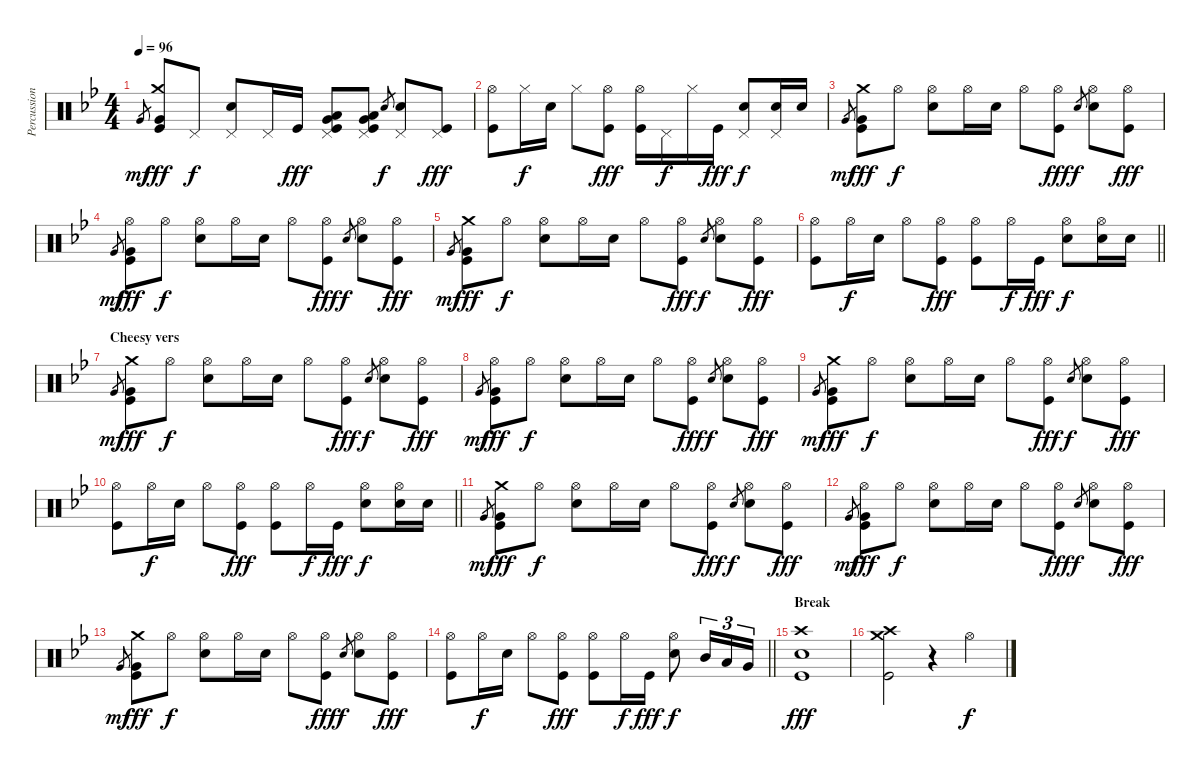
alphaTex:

\track ("Percussion" "Percussion") {instrument percussion}
\staff {score}
\articulation defaults
\ts (4 4)
\tempo 96
\clef neutral
\ks gminor "Very Low Tom (hit)".8{gr dy mf}
("Crash medium (hit)" "Very Low Tom (hit)" "Kick (hit)").8{dy fff} "Pedal Hi-Hat (hit)".8{dy f} ("Pedal Hi-Hat (hit)" "Electric Snare (hit)").8 "Pedal Hi-Hat (hit)".16 "Kick (hit)".16{dy fff} ("Low Floor Tom (hit)" "Pedal Hi-Hat (hit)" "Very Low Tom (hit)" "Kick (hit)").8 ("Low Floor Tom (hit)" "Pedal Hi-Hat (hit)" "Very Low Tom (hit)" "Kick (hit)").8 "Electric Snare (hit)".8{gr dy f} ("Pedal Hi-Hat (hit)" "Electric Snare (hit)").8 ("Pedal Hi-Hat (hit)" "Kick (hit)").8{dy fff} |
("Hi-Hat (open)" "Kick (hit)").8 "Hi-Hat (closed)".16{dy f} "Electric Snare (hit)".16 "Hi-Hat (closed)".8 ("Hi-Hat (open)" "Kick (hit)").8{dy fff} ("Hi-Hat (open)" "Kick (hit)").16 "Pedal Hi-Hat (hit)".16{dy f} "Hi-Hat (closed)".16 "Kick (hit)".16{dy fff} ("Pedal Hi-Hat (hit)" "Electric Snare (hit)").8{dy f} ("Pedal Hi-Hat (hit)" "Electric Snare (hit)").16 "Electric Snare (hit)".16 |
"Very Low Tom (hit)".8{gr dy mf} ("Crash medium (hit)" "Very Low Tom (hit)" "Kick (hit)").8{dy fff} "Hi-Hat (open)".8{dy f} ("Hi-Hat (open)" "Electric Snare (hit)").8 "Hi-Hat (open)".16 "Electric Snare (hit)".16 "Hi-Hat (open)".8 ("Hi-Hat (open)" "Kick (hit)").8{dy fff} "Electric Snare (hit)".8{gr dy f} ("Hi-Hat (open)" "Electric Snare (hit)").8 ("Hi-Hat (open)" "Kick (hit)").8{dy fff} |
"Very Low Tom (hit)".8{gr dy mf} ("Hi-Hat (open)" "Very Low Tom (hit)" "Kick (hit)").8{dy fff} "Hi-Hat (open)".8{dy f} ("Hi-Hat (open)" "Electric Snare (hit)").8 "Hi-Hat (open)".16 "Electric Snare (hit)".16 "Hi-Hat (open)".8 ("Hi-Hat (open)" "Kick (hit)").8{dy fff} "Electric Snare (hit)".8{gr dy f} ("Hi-Hat (open)" "Electric Snare (hit)").8 ("Hi-Hat (open)" "Kick (hit)").8{dy fff} |
"Very Low Tom (hit)".8{gr dy mf} ("Crash medium (hit)" "Very Low Tom (hit)" "Kick (hit)").8{dy fff} "Hi-Hat (open)".8{dy f} ("Hi-Hat (open)" "Electric Snare (hit)").8 "Hi-Hat (open)".16 "Electric Snare (hit)".16 "Hi-Hat (open)".8 ("Hi-Hat (open)" "Kick (hit)").8{dy fff} "Electric Snare (hit)".8{gr dy f} ("Hi-Hat (open)" "Electric Snare (hit)").8 ("Hi-Hat (open)" "Kick (hit)").8{dy fff} |
\barLineRight lightlight
("Hi-Hat (open)" "Kick (hit)").8 "Hi-Hat (open)".16{dy f} "Electric Snare (hit)".16 "Hi-Hat (open)".8 ("Hi-Hat (open)" "Kick (hit)").8{dy fff} ("Hi-Hat (open)" "Kick (hit)").8 "Hi-Hat (open)".16{dy f} "Kick (hit)".16{dy fff} ("Hi-Hat (open)" "Electric Snare (hit)").8{dy f} ("Hi-Hat (open)" "Electric Snare (hit)").16 "Electric Snare (hit)".16 |
\section ("" "Cheesy vers")
"Very Low Tom (hit)".8{gr dy mf} ("Crash medium (hit)" "Very Low Tom (hit)" "Kick (hit)").8{dy fff} "Hi-Hat (open)".8{dy f} ("Hi-Hat (open)" "Electric Snare (hit)").8 "Hi-Hat (open)".16 "Electric Snare (hit)".16 "Hi-Hat (open)".8 ("Hi-Hat (open)" "Kick (hit)").8{dy fff} "Electric Snare (hit)".8{gr dy f} ("Hi-Hat (open)" "Electric Snare (hit)").8 ("Hi-Hat (open)" "Kick (hit)").8{dy fff} |
"Very Low Tom (hit)".8{gr dy mf} ("Hi-Hat (open)" "Very Low Tom (hit)" "Kick (hit)").8{dy fff} "Hi-Hat (open)".8{dy f} ("Hi-Hat (open)" "Electric Snare (hit)").8 "Hi-Hat (open)".16 "Electric Snare (hit)".16 "Hi-Hat (open)".8 ("Hi-Hat (open)" "Kick (hit)").8{dy fff} "Electric Snare (hit)".8{gr dy f} ("Hi-Hat (open)" "Electric Snare (hit)").8 ("Hi-Hat (open)" "Kick (hit)").8{dy fff} |
"Very Low Tom (hit)".8{gr dy mf} ("Crash medium (hit)" "Very Low Tom (hit)" "Kick (hit)").8{dy fff} "Hi-Hat (open)".8{dy f} ("Hi-Hat (open)" "Electric Snare (hit)").8 "Hi-Hat (open)".16 "Electric Snare (hit)".16 "Hi-Hat (open)".8 ("Hi-Hat (open)" "Kick (hit)").8{dy fff} "Electric Snare (hit)".8{gr dy f} ("Hi-Hat (open)" "Electric Snare (hit)").8 ("Hi-Hat (open)" "Kick (hit)").8{dy fff} |
\barLineRight lightlight
("Hi-Hat (open)" "Kick (hit)").8 "Hi-Hat (open)".16{dy f} "Electric Snare (hit)".16 "Hi-Hat (open)".8 ("Hi-Hat (open)" "Kick (hit)").8{dy fff} ("Hi-Hat (open)" "Kick (hit)").8 "Hi-Hat (open)".16{dy f} "Kick (hit)".16{dy fff} ("Hi-Hat (open)" "Electric Snare (hit)").8{dy f} ("Hi-Hat (open)" "Electric Snare (hit)").16 "Electric Snare (hit)".16 |
"Very Low Tom (hit)".8{gr dy mf} ("Crash medium (hit)" "Very Low Tom (hit)" "Kick (hit)").8{dy fff} "Hi-Hat (open)".8{dy f} ("Hi-Hat (open)" "Electric Snare (hit)").8 "Hi-Hat (open)".16 "Electric Snare (hit)".16 "Hi-Hat (open)".8 ("Hi-Hat (open)" "Kick (hit)").8{dy fff} "Electric Snare (hit)".8{gr dy f} ("Hi-Hat (open)" "Electric Snare (hit)").8 ("Hi-Hat (open)" "Kick (hit)").8{dy fff} |
"Very Low Tom (hit)".8{gr dy mf} ("Hi-Hat (open)" "Very Low Tom (hit)" "Kick (hit)").8{dy fff} "Hi-Hat (open)".8{dy f} ("Hi-Hat (open)" "Electric Snare (hit)").8 "Hi-Hat (open)".16 "Electric Snare (hit)".16 "Hi-Hat (open)".8 ("Hi-Hat (open)" "Kick (hit)").8{dy fff} "Electric Snare (hit)".8{gr dy f} ("Hi-Hat (open)" "Electric Snare (hit)").8 ("Hi-Hat (open)" "Kick (hit)").8{dy fff} |
"Very Low Tom (hit)".8{gr dy mf} ("Crash medium (hit)" "Very Low Tom (hit)" "Kick (hit)").8{dy fff} "Hi-Hat (open)".8{dy f} ("Hi-Hat (open)" "Electric Snare (hit)").8 "Hi-Hat (open)".16 "Electric Snare (hit)".16 "Hi-Hat (open)".8 ("Hi-Hat (open)" "Kick (hit)").8{dy fff} "Electric Snare (hit)".8{gr dy f} ("Hi-Hat (open)" "Electric Snare (hit)").8 ("Hi-Hat (open)" "Kick (hit)").8{dy fff} |
\barLineRight lightlight
("Hi-Hat (open)" "Kick (hit)").8 "Hi-Hat (open)".16{dy f} "Electric Snare (hit)".16 "Hi-Hat (open)".8 ("Hi-Hat (open)" "Kick (hit)").8{dy fff} ("Hi-Hat (open)" "Kick (hit)").8 "Hi-Hat (open)".16{dy f} "Kick (hit)".16{dy fff} ("Hi-Hat (open)" "Electric Snare (hit)").8{dy f} "Mid Tom (hit)".16{tu (3 2)} "Low Tom (hit)".16{tu (3 2)} "Very Low Tom (hit)".16{tu (3 2)} |
\section ("" "Break")
("Crash high (hit)" "Electric Snare (hit)" "Kick (hit)").1{dy fff} |
("Crash medium (hit)" "Crash high (hit)" "Kick (hit)").2 r.4 "Hi-Hat (open)".4{dy f}
